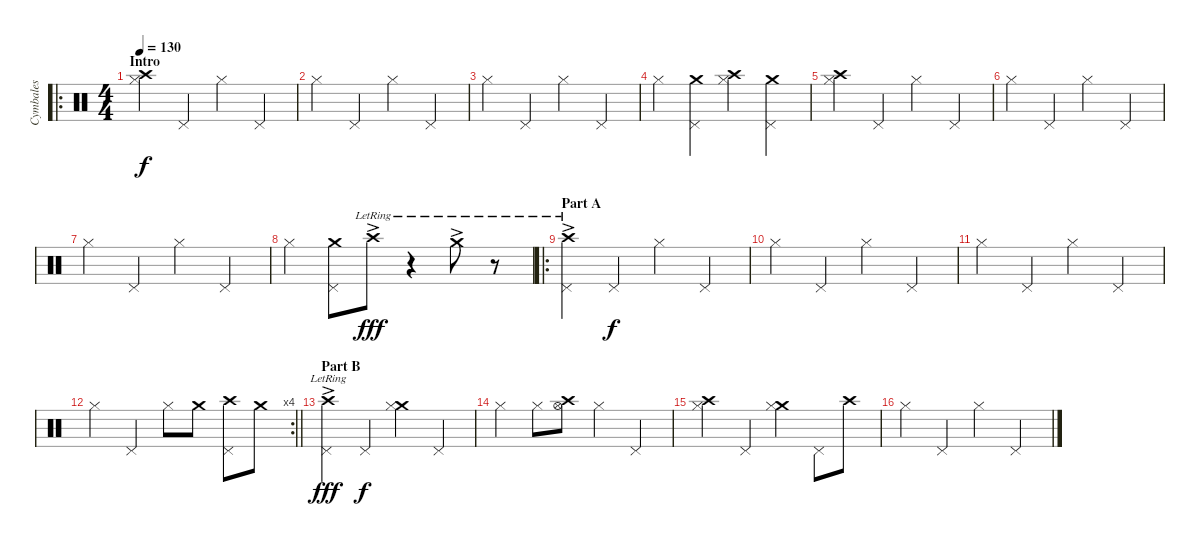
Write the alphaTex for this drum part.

\track ("Cymbales" "Cymbales") {instrument percussion}
\staff {score}
\articulation defaults
\ro
\ts (4 4)
\section ("" "Intro")
\tempo 130
\clef neutral
\ks c
("Crash high (hit)" "Hi-Hat (closed)").4{dy f} "Pedal Hi-Hat (hit)".4 "Hi-Hat (closed)".4 "Pedal Hi-Hat (hit)".4 |
"Hi-Hat (closed)".4 "Pedal Hi-Hat (hit)".4 "Hi-Hat (closed)".4 "Pedal Hi-Hat (hit)".4 |
"Hi-Hat (closed)".4 "Pedal Hi-Hat (hit)".4 "Hi-Hat (closed)".4 "Pedal Hi-Hat (hit)".4 |
"Hi-Hat (closed)".4 ("Crash medium (hit)" "Pedal Hi-Hat (hit)").4 ("Crash high (hit)" "Hi-Hat (closed)").4 ("Crash medium (hit)" "Pedal Hi-Hat (hit)").4 |
("Crash high (hit)" "Hi-Hat (closed)").4 "Pedal Hi-Hat (hit)".4 "Hi-Hat (closed)".4 "Pedal Hi-Hat (hit)".4 |
"Hi-Hat (closed)".4 "Pedal Hi-Hat (hit)".4 "Hi-Hat (closed)".4 "Pedal Hi-Hat (hit)".4 |
"Hi-Hat (closed)".4 "Pedal Hi-Hat (hit)".4 "Hi-Hat (closed)".4 "Pedal Hi-Hat (hit)".4 |
"Hi-Hat (closed)".4 ("Crash medium (hit)" "Pedal Hi-Hat (hit)").8 "Crash high (hit)"{ac lr}.8{dy fff} r.4 "Crash medium (hit)"{ac lr}.8 r.8 |
\ro
\section ("" "Part A")
("Crash high (hit)"{ac lr} "Pedal Hi-Hat (hit)").4 "Pedal Hi-Hat (hit)".4{dy f} "Hi-Hat (closed)".4 "Pedal Hi-Hat (hit)".4 |
"Hi-Hat (closed)".4 "Pedal Hi-Hat (hit)".4 "Hi-Hat (closed)".4 "Pedal Hi-Hat (hit)".4 |
"Hi-Hat (closed)".4 "Pedal Hi-Hat (hit)".4 "Hi-Hat (closed)".4 "Pedal Hi-Hat (hit)".4 |
\rc 4
\barLineRight lightlight "Hi-Hat (closed)".4 "Pedal Hi-Hat (hit)".4 "Hi-Hat (closed)".8 "Crash medium (hit)".8
("Crash high (hit)" "Pedal Hi-Hat (hit)").8 "Crash medium (hit)".8 |
\section ("" "Part B")
("Crash high (hit)"{ac lr} "Pedal Hi-Hat (hit)").4{dy fff} "Pedal Hi-Hat (hit)".4{dy f} ("Crash medium (hit)" "Hi-Hat (closed)").4 "Pedal Hi-Hat (hit)".4 |
"Hi-Hat (closed)".4 "Hi-Hat (closed)".8 ("Crash high (hit)" "Hi-Hat (open)").8 "Hi-Hat (closed)".4 "Pedal Hi-Hat (hit)".4 |
("Crash high (hit)" "Hi-Hat (closed)").4 "Pedal Hi-Hat (hit)".4 ("Crash medium (hit)" "Hi-Hat (closed)").4 "Pedal Hi-Hat (hit)".8 "Crash high (hit)".8 |
"Hi-Hat (closed)".4 "Pedal Hi-Hat (hit)".4 "Hi-Hat (closed)".4 "Pedal Hi-Hat (hit)".4
